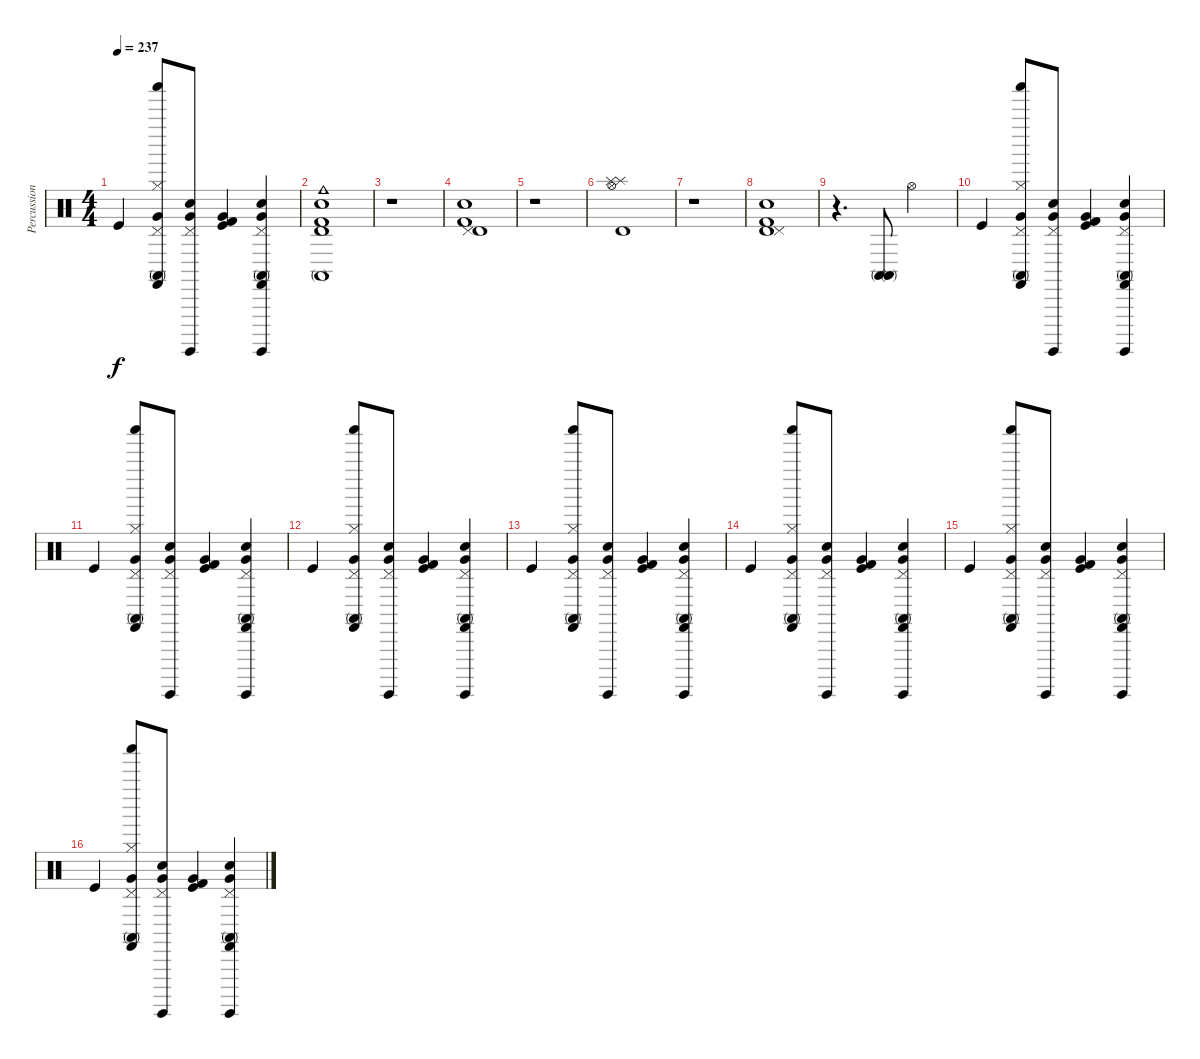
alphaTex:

\track ("Percussions" "Percussion") {instrument percussion}
\staff {score}
\articulation defaults
\ts (4 4)
\tempo 237
\clef neutral
\ks c "Kick (hit)".4{dy f}
("Hi-Hat (closed)" "Shaker (hit)" "Pedal Hi-Hat (hit)" "Very Low Tom (hit)" "Conga high (mute)" "Castanets (hit)").8 ("Hand Clap (hit)" "Surdo (hit)" "Pedal Hi-Hat (hit)" "Very Low Tom (hit)").8 ("Kick (hit)" "Kick (hit) 2" "Very Low Tom (hit)").4 ("Hand Clap (hit)" "Surdo (hit)" "Pedal Hi-Hat (hit)" "Very Low Tom (hit)" "Conga high (mute)" "Castanets (hit)").4 |
("Hand Clap (hit)" "Kick (hit) 2" "Cowbell medium (hit)" "Conga high (mute)" "Timbale high (hit)").1 |
r.1 |
("Hand Clap (hit)" "Kick (hit) 2" "Pedal Hi-Hat (hit)" "Timbale high (hit)").1 |
r.1 |
("Splash (hit)" "Hi-Hat (open)" "Splash (hit)" "Timbale high (hit)").1 |
r.1 |
("Hand Clap (hit)" "Kick (hit) 2" "Timbale high (hit)" "Pedal Hi-Hat (hit)").1 |
r.4{d} ("Conga high (mute)" "Conga high (mute)").8 "Hi-Hat (open)".2 |
"Kick (hit)".4 ("Hi-Hat (closed)" "Shaker (hit)" "Pedal Hi-Hat (hit)" "Very Low Tom (hit)" "Conga high (mute)" "Castanets (hit)").8 ("Hand Clap (hit)" "Surdo (hit)" "Pedal Hi-Hat (hit)" "Very Low Tom (hit)").8 ("Kick (hit)" "Kick (hit) 2" "Very Low Tom (hit)").4 ("Hand Clap (hit)" "Surdo (hit)" "Pedal Hi-Hat (hit)" "Very Low Tom (hit)" "Conga high (mute)" "Castanets (hit)").4 |
"Kick (hit)".4 ("Hi-Hat (closed)" "Shaker (hit)" "Pedal Hi-Hat (hit)" "Very Low Tom (hit)" "Conga high (mute)" "Castanets (hit)").8 ("Hand Clap (hit)" "Surdo (hit)" "Pedal Hi-Hat (hit)" "Very Low Tom (hit)").8 ("Kick (hit)" "Kick (hit) 2" "Very Low Tom (hit)").4 ("Hand Clap (hit)" "Surdo (hit)" "Pedal Hi-Hat (hit)" "Very Low Tom (hit)" "Conga high (mute)" "Castanets (hit)").4 |
"Kick (hit)".4 ("Hi-Hat (closed)" "Shaker (hit)" "Pedal Hi-Hat (hit)" "Very Low Tom (hit)" "Conga high (mute)" "Castanets (hit)").8 ("Hand Clap (hit)" "Surdo (hit)" "Pedal Hi-Hat (hit)" "Very Low Tom (hit)").8 ("Kick (hit)" "Kick (hit) 2" "Very Low Tom (hit)").4 ("Hand Clap (hit)" "Surdo (hit)" "Pedal Hi-Hat (hit)" "Very Low Tom (hit)" "Conga high (mute)" "Castanets (hit)").4 |
"Kick (hit)".4 ("Hi-Hat (closed)" "Shaker (hit)" "Pedal Hi-Hat (hit)" "Very Low Tom (hit)" "Conga high (mute)" "Castanets (hit)").8 ("Hand Clap (hit)" "Surdo (hit)" "Pedal Hi-Hat (hit)" "Very Low Tom (hit)").8 ("Kick (hit)" "Kick (hit) 2" "Very Low Tom (hit)").4 ("Hand Clap (hit)" "Surdo (hit)" "Pedal Hi-Hat (hit)" "Very Low Tom (hit)" "Conga high (mute)" "Castanets (hit)").4 |
"Kick (hit)".4 ("Hi-Hat (closed)" "Shaker (hit)" "Pedal Hi-Hat (hit)" "Very Low Tom (hit)" "Conga high (mute)" "Castanets (hit)").8 ("Hand Clap (hit)" "Surdo (hit)" "Pedal Hi-Hat (hit)" "Very Low Tom (hit)").8 ("Kick (hit)" "Kick (hit) 2" "Very Low Tom (hit)").4 ("Hand Clap (hit)" "Surdo (hit)" "Pedal Hi-Hat (hit)" "Very Low Tom (hit)" "Conga high (mute)" "Castanets (hit)").4 |
"Kick (hit)".4 ("Hi-Hat (closed)" "Shaker (hit)" "Pedal Hi-Hat (hit)" "Very Low Tom (hit)" "Conga high (mute)" "Castanets (hit)").8 ("Hand Clap (hit)" "Surdo (hit)" "Pedal Hi-Hat (hit)" "Very Low Tom (hit)").8 ("Kick (hit)" "Kick (hit) 2" "Very Low Tom (hit)").4 ("Hand Clap (hit)" "Surdo (hit)" "Pedal Hi-Hat (hit)" "Very Low Tom (hit)" "Conga high (mute)" "Castanets (hit)").4 |
"Kick (hit)".4 ("Hi-Hat (closed)" "Shaker (hit)" "Pedal Hi-Hat (hit)" "Very Low Tom (hit)" "Conga high (mute)" "Castanets (hit)").8 ("Hand Clap (hit)" "Surdo (hit)" "Pedal Hi-Hat (hit)" "Very Low Tom (hit)").8 ("Kick (hit)" "Kick (hit) 2" "Very Low Tom (hit)").4 ("Hand Clap (hit)" "Surdo (hit)" "Pedal Hi-Hat (hit)" "Very Low Tom (hit)" "Conga high (mute)" "Castanets (hit)").4
